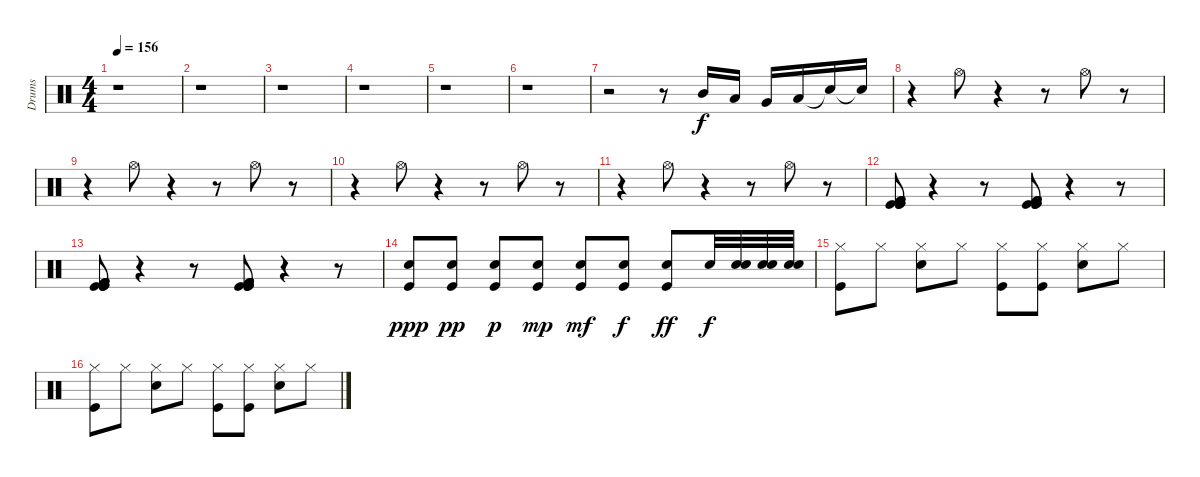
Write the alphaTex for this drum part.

\track ("Drums" "Drums") {instrument percussion}
\staff {score}
\articulation defaults
\ts (4 4)
\tempo 156
\clef neutral
\ks c
r.1{dy f} |
r.1 |
r.1 |
r.1 |
r.1 |
r.1 |
r.2 r.8 "Mid Tom (hit)".16 "Low Tom (hit)".16 "Very Low Tom (hit)".16 "Low Floor Tom (hit)".16 "Snare (hit)"{t}.16 "Snare (hit)"{t}.16 |
r.4 "Hi-Hat (open)".8 r.4 r.8 "Hi-Hat (open)".8 r.8 |
r.4 "Hi-Hat (open)".8 r.4 r.8 "Hi-Hat (open)".8 r.8 |
r.4 "Hi-Hat (open)".8 r.4 r.8 "Hi-Hat (open)".8 r.8 |
r.4 "Hi-Hat (open)".8 r.4 r.8 "Hi-Hat (open)".8 r.8 |
("Kick (hit)" "Kick (hit) 2" "Kick (hit) 2" "Kick (hit) 2" "Kick (hit)" "Kick (hit)").8 r.4 r.8 ("Kick (hit)" "Kick (hit) 2" "Kick (hit) 2" "Kick (hit) 2" "Kick (hit)" "Kick (hit)").8 r.4 r.8 |
("Kick (hit)" "Kick (hit) 2" "Kick (hit) 2" "Kick (hit) 2" "Kick (hit)" "Kick (hit)").8 r.4 r.8 ("Kick (hit)" "Kick (hit) 2" "Kick (hit) 2" "Kick (hit) 2" "Kick (hit)" "Kick (hit)").8 r.4 r.8 |
("Kick (hit)" "Electric Snare (hit)").8{dy ppp} ("Kick (hit)" "Electric Snare (hit)").8{dy pp} ("Kick (hit)" "Electric Snare (hit)").8{dy p} ("Kick (hit)" "Electric Snare (hit)").8{dy mp} ("Kick (hit)" "Electric Snare (hit)").8{dy mf} ("Kick (hit)" "Electric Snare (hit)").8{dy f} ("Kick (hit)" "Electric Snare (hit)").8{dy ff} "Electric Snare (hit)".32{dy f} ("Snare (hit) 2" "Electric Snare (hit)").32 ("Snare (hit) 2" "Electric Snare (hit)").32 ("Snare (hit) 2" "Electric Snare (hit)").32 |
("Kick (hit)" "Hi-Hat (closed)").8 "Hi-Hat (closed)".8 ("Snare (hit) 2" "Hi-Hat (closed)").8 "Hi-Hat (closed)".8 ("Kick (hit)" "Hi-Hat (closed)").8 ("Kick (hit)" "Hi-Hat (closed)").8 ("Snare (hit) 2" "Hi-Hat (closed)").8 "Hi-Hat (closed)".8 |
("Kick (hit)" "Hi-Hat (closed)").8 "Hi-Hat (closed)".8 ("Snare (hit) 2" "Hi-Hat (closed)").8 "Hi-Hat (closed)".8 ("Kick (hit)" "Hi-Hat (closed)").8 ("Kick (hit)" "Hi-Hat (closed)").8 ("Snare (hit) 2" "Hi-Hat (closed)").8 "Hi-Hat (closed)".8
